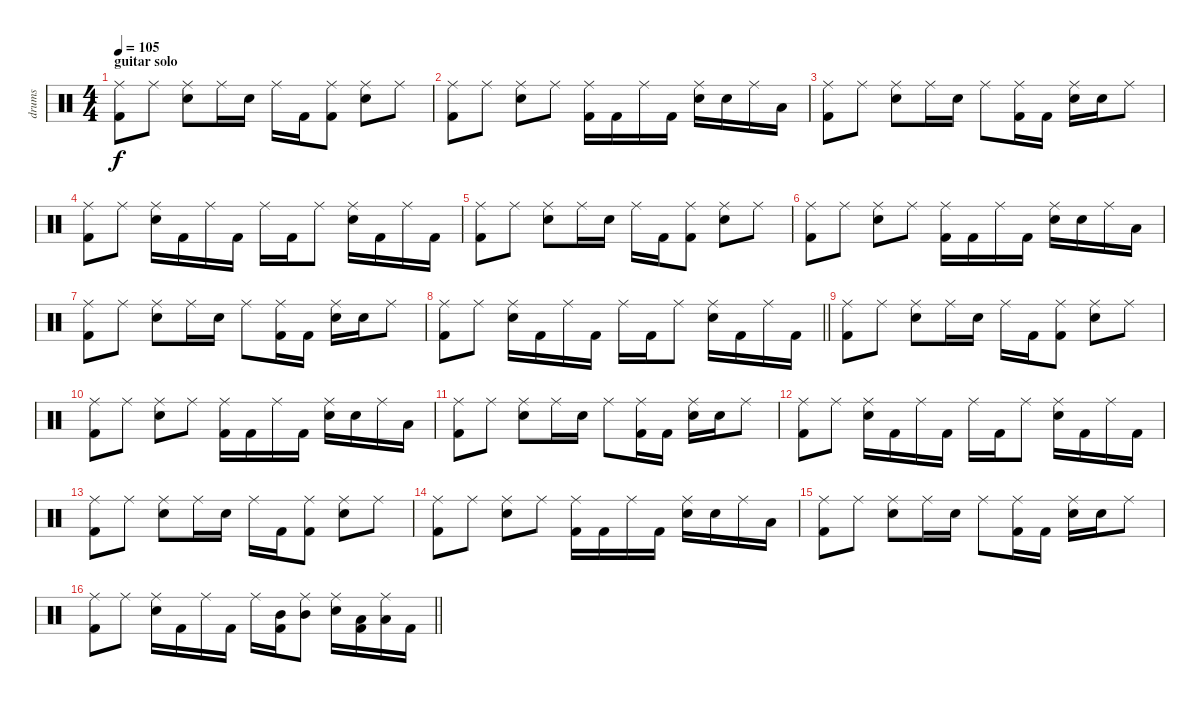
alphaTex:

\track ("drums" "drums") {instrument percussion}
\staff {score}
\articulation defaults
\ts (4 4)
\section ("" "guitar solo")
\tempo 105
\clef neutral
\ks c
("Ride (middle)" "Kick (hit) 2").8{dy f} "Ride (middle)".8 ("Ride (middle)" "Snare (hit) 2").8 "Ride (middle)".16 "Snare (hit) 2".16 "Ride (middle)".16 "Kick (hit) 2".16 ("Ride (middle)" "Kick (hit) 2").8 ("Ride (middle)" "Snare (hit) 2").8 "Ride (middle)".8 |
("Ride (middle)" "Kick (hit) 2").8 "Ride (middle)".8 ("Ride (middle)" "Snare (hit) 2").8 "Ride (middle)".8 ("Ride (middle)" "Kick (hit) 2").16 "Kick (hit) 2".16 "Ride (middle)".16 "Kick (hit) 2".16 ("Ride (middle)" "Snare (hit) 2").16 "Snare (hit) 2".16 "Ride (middle)".16 "Low Tom (hit)".16 |
("Ride (middle)" "Kick (hit) 2").8 "Ride (middle)".8 ("Ride (middle)" "Snare (hit) 2").8 "Ride (middle)".16 "Snare (hit) 2".16 "Ride (middle)".8 ("Ride (middle)" "Kick (hit) 2").16 "Kick (hit) 2".16 ("Ride (middle)" "Snare (hit) 2").16 "Snare (hit) 2".16 "Ride (middle)".8 |
("Ride (middle)" "Kick (hit) 2").8 "Ride (middle)".8 ("Ride (middle)" "Snare (hit) 2").16 "Kick (hit) 2".16 "Ride (middle)".16 "Kick (hit) 2".16 "Ride (middle)".16 "Kick (hit) 2".16 "Ride (middle)".8 ("Ride (middle)" "Snare (hit) 2").16 "Kick (hit) 2".16 "Ride (middle)".16 "Kick (hit) 2".16 |
("Ride (middle)" "Kick (hit) 2").8 "Ride (middle)".8 ("Ride (middle)" "Snare (hit) 2").8 "Ride (middle)".16 "Snare (hit) 2".16 "Ride (middle)".16 "Kick (hit) 2".16 ("Ride (middle)" "Kick (hit) 2").8 ("Ride (middle)" "Snare (hit) 2").8 "Ride (middle)".8 |
("Ride (middle)" "Kick (hit) 2").8 "Ride (middle)".8 ("Ride (middle)" "Snare (hit) 2").8 "Ride (middle)".8 ("Ride (middle)" "Kick (hit) 2").16 "Kick (hit) 2".16 "Ride (middle)".16 "Kick (hit) 2".16 ("Ride (middle)" "Snare (hit) 2").16 "Snare (hit) 2".16 "Ride (middle)".16 "Low Tom (hit)".16 |
("Ride (middle)" "Kick (hit) 2").8 "Ride (middle)".8 ("Ride (middle)" "Snare (hit) 2").8 "Ride (middle)".16 "Snare (hit) 2".16 "Ride (middle)".8 ("Ride (middle)" "Kick (hit) 2").16 "Kick (hit) 2".16 ("Ride (middle)" "Snare (hit) 2").16 "Snare (hit) 2".16 "Ride (middle)".8 |
\barLineRight lightlight
("Ride (middle)" "Kick (hit) 2").8 "Ride (middle)".8 ("Ride (middle)" "Snare (hit) 2").16 "Kick (hit) 2".16 "Ride (middle)".16 "Kick (hit) 2".16 "Ride (middle)".16 "Kick (hit) 2".16 "Ride (middle)".8 ("Ride (middle)" "Snare (hit) 2").16 "Kick (hit) 2".16 "Ride (middle)".16 "Kick (hit) 2".16 |
("Ride (middle)" "Kick (hit) 2").8 "Ride (middle)".8 ("Ride (middle)" "Snare (hit) 2").8 "Ride (middle)".16 "Snare (hit) 2".16 "Ride (middle)".16 "Kick (hit) 2".16 ("Ride (middle)" "Kick (hit) 2").8 ("Ride (middle)" "Snare (hit) 2").8 "Ride (middle)".8 |
("Ride (middle)" "Kick (hit) 2").8 "Ride (middle)".8 ("Ride (middle)" "Snare (hit) 2").8 "Ride (middle)".8 ("Ride (middle)" "Kick (hit) 2").16 "Kick (hit) 2".16 "Ride (middle)".16 "Kick (hit) 2".16 ("Ride (middle)" "Snare (hit) 2").16 "Snare (hit) 2".16 "Ride (middle)".16 "Low Tom (hit)".16 |
("Ride (middle)" "Kick (hit) 2").8 "Ride (middle)".8 ("Ride (middle)" "Snare (hit) 2").8 "Ride (middle)".16 "Snare (hit) 2".16 "Ride (middle)".8 ("Ride (middle)" "Kick (hit) 2").16 "Kick (hit) 2".16 ("Ride (middle)" "Snare (hit) 2").16 "Snare (hit) 2".16 "Ride (middle)".8 |
("Ride (middle)" "Kick (hit) 2").8 "Ride (middle)".8 ("Ride (middle)" "Snare (hit) 2").16 "Kick (hit) 2".16 "Ride (middle)".16 "Kick (hit) 2".16 "Ride (middle)".16 "Kick (hit) 2".16 "Ride (middle)".8 ("Ride (middle)" "Snare (hit) 2").16 "Kick (hit) 2".16 "Ride (middle)".16 "Kick (hit) 2".16 |
("Ride (middle)" "Kick (hit) 2").8 "Ride (middle)".8 ("Ride (middle)" "Snare (hit) 2").8 "Ride (middle)".16 "Snare (hit) 2".16 "Ride (middle)".16 "Kick (hit) 2".16 ("Ride (middle)" "Kick (hit) 2").8 ("Ride (middle)" "Snare (hit) 2").8 "Ride (middle)".8 |
("Ride (middle)" "Kick (hit) 2").8 "Ride (middle)".8 ("Ride (middle)" "Snare (hit) 2").8 "Ride (middle)".8 ("Ride (middle)" "Kick (hit) 2").16 "Kick (hit) 2".16 "Ride (middle)".16 "Kick (hit) 2".16 ("Ride (middle)" "Snare (hit) 2").16 "Snare (hit) 2".16 "Ride (middle)".16 "Low Tom (hit)".16 |
("Ride (middle)" "Kick (hit) 2").8 "Ride (middle)".8 ("Ride (middle)" "Snare (hit) 2").8 "Ride (middle)".16 "Snare (hit) 2".16 "Ride (middle)".8 ("Ride (middle)" "Kick (hit) 2").16 "Kick (hit) 2".16 ("Ride (middle)" "Snare (hit) 2").16 "Snare (hit) 2".16 "Ride (middle)".8 |
\barLineRight lightlight
("Ride (middle)" "Kick (hit) 2").8 "Ride (middle)".8 ("Ride (middle)" "Snare (hit) 2").16 "Kick (hit) 2".16 "Ride (middle)".16 "Kick (hit) 2".16 "Ride (middle)".16 ("Mid Tom (hit)" "Kick (hit) 2").16 ("Ride (middle)" "Mid Tom (hit)").8 ("Ride (middle)" "Snare (hit) 2").16 ("Low Tom (hit)" "Kick (hit) 2").16 ("Ride (middle)" "Low Tom (hit)").16 "Kick (hit) 2".16
